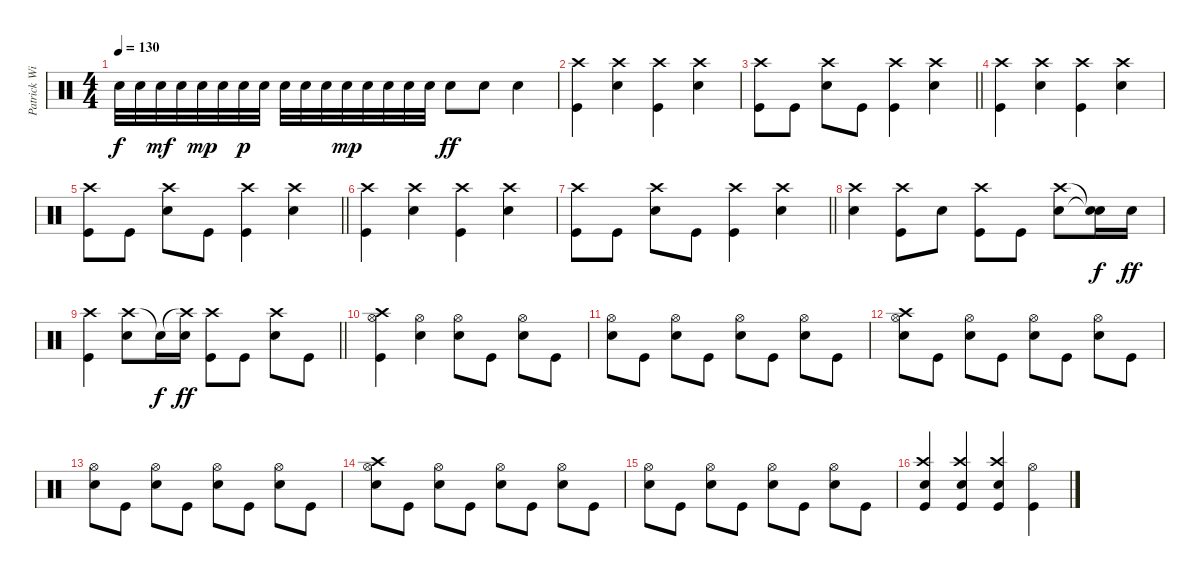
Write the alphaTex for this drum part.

\track ("Patrick Wilson" "Patrick Wi") {instrument percussion}
\staff {score}
\articulation defaults
\ts (4 4)
\tempo 130
\clef neutral
\ks c "Electric Snare (hit)".32{dy f} "Electric Snare (hit)".32 "Electric Snare (hit)".32{dy mf} "Electric Snare (hit)".32 "Electric Snare (hit)".32{dy mp} "Electric Snare (hit)".32 "Electric Snare (hit)".32{dy p} "Electric Snare (hit)".32 "Electric Snare (hit)".32 "Electric Snare (hit)".32 "Electric Snare (hit)".32 "Electric Snare (hit)".32{dy mp} "Electric Snare (hit)".32 "Electric Snare (hit)".32 "Electric Snare (hit)".32 "Electric Snare (hit)".32 "Electric Snare (hit)".8{dy ff} "Electric Snare (hit)".8 "Electric Snare (hit)".4
|
("Crash high (hit)" "Kick (hit)").4 ("Crash high (hit)" "Electric Snare (hit)").4 ("Crash high (hit)" "Kick (hit)").4 ("Crash high (hit)" "Electric Snare (hit)").4 |
\barLineRight lightlight
("Crash high (hit)" "Kick (hit)").8 "Kick (hit)".8 ("Crash high (hit)" "Electric Snare (hit)").8 "Kick (hit)".8 ("Crash high (hit)" "Kick (hit)").4 ("Crash high (hit)" "Electric Snare (hit)").4 |
("Crash high (hit)" "Kick (hit)").4 ("Crash high (hit)" "Electric Snare (hit)").4 ("Crash high (hit)" "Kick (hit)").4 ("Crash high (hit)" "Electric Snare (hit)").4 |
\barLineRight lightlight
("Crash high (hit)" "Kick (hit)").8 "Kick (hit)".8 ("Crash high (hit)" "Electric Snare (hit)").8 "Kick (hit)".8 ("Crash high (hit)" "Kick (hit)").4 ("Crash high (hit)" "Electric Snare (hit)").4 |
("Crash high (hit)" "Kick (hit)").4 ("Crash high (hit)" "Electric Snare (hit)").4 ("Crash high (hit)" "Kick (hit)").4 ("Crash high (hit)" "Electric Snare (hit)").4 |
\barLineRight lightlight
("Crash high (hit)" "Kick (hit)").8 "Kick (hit)".8 ("Crash high (hit)" "Electric Snare (hit)").8 "Kick (hit)".8 ("Crash high (hit)" "Kick (hit)").4 ("Crash high (hit)" "Electric Snare (hit)").4 |
("Crash high (hit)" "Electric Snare (hit)").4 ("Crash high (hit)" "Kick (hit)").8 "Electric Snare (hit)".8 ("Crash high (hit)" "Kick (hit)").8 "Kick (hit)".8 ("Crash high (hit)" "Electric Snare (hit)").8 ("Snare (hit)"{t} "Electric Snare (hit)"{t}).16{dy f} "Electric Snare (hit)".16{dy ff} |
\barLineRight lightlight
("Crash high (hit)" "Kick (hit)").4 ("Crash high (hit)" "Electric Snare (hit)").8 "Snare (hit)"{t}.16{dy f} ("Crash high (hit)"{t} "Electric Snare (hit)").16{dy ff} ("Crash high (hit)" "Kick (hit)").8 "Kick (hit)".8 ("Crash high (hit)" "Electric Snare (hit)").8 "Kick (hit)".8 |
("Hi-Hat (open)" "Crash high (hit)" "Kick (hit)").4 ("Hi-Hat (open)" "Electric Snare (hit)").4 ("Hi-Hat (open)" "Electric Snare (hit)").8 "Kick (hit)".8 ("Hi-Hat (open)" "Electric Snare (hit)").8 "Kick (hit)".8 |
("Hi-Hat (open)" "Electric Snare (hit)").8 "Kick (hit)".8 ("Hi-Hat (open)" "Electric Snare (hit)").8 "Kick (hit)".8 ("Hi-Hat (open)" "Electric Snare (hit)").8 "Kick (hit)".8 ("Hi-Hat (open)" "Electric Snare (hit)").8 "Kick (hit)".8 |
("Hi-Hat (open)" "Crash high (hit)" "Electric Snare (hit)").8 "Kick (hit)".8 ("Hi-Hat (open)" "Electric Snare (hit)").8 "Kick (hit)".8 ("Hi-Hat (open)" "Electric Snare (hit)").8 "Kick (hit)".8 ("Hi-Hat (open)" "Electric Snare (hit)").8 "Kick (hit)".8 |
("Hi-Hat (open)" "Electric Snare (hit)").8 "Kick (hit)".8 ("Hi-Hat (open)" "Electric Snare (hit)").8 "Kick (hit)".8 ("Hi-Hat (open)" "Electric Snare (hit)").8 "Kick (hit)".8 ("Hi-Hat (open)" "Electric Snare (hit)").8 "Kick (hit)".8 |
("Hi-Hat (open)" "Crash high (hit)" "Electric Snare (hit)").8 "Kick (hit)".8 ("Hi-Hat (open)" "Electric Snare (hit)").8 "Kick (hit)".8 ("Hi-Hat (open)" "Electric Snare (hit)").8 "Kick (hit)".8 ("Hi-Hat (open)" "Electric Snare (hit)").8 "Kick (hit)".8 |
("Hi-Hat (open)" "Electric Snare (hit)").8 "Kick (hit)".8 ("Hi-Hat (open)" "Electric Snare (hit)").8 "Kick (hit)".8 ("Hi-Hat (open)" "Electric Snare (hit)").8 "Kick (hit)".8 ("Hi-Hat (open)" "Electric Snare (hit)").8 "Kick (hit)".8 |
("Crash high (hit)" "Electric Snare (hit)" "Kick (hit)").4 ("Crash high (hit)" "Electric Snare (hit)" "Kick (hit)").4 ("Crash high (hit)" "Electric Snare (hit)" "Kick (hit)").4 ("Hi-Hat (open)" "Kick (hit)").4
